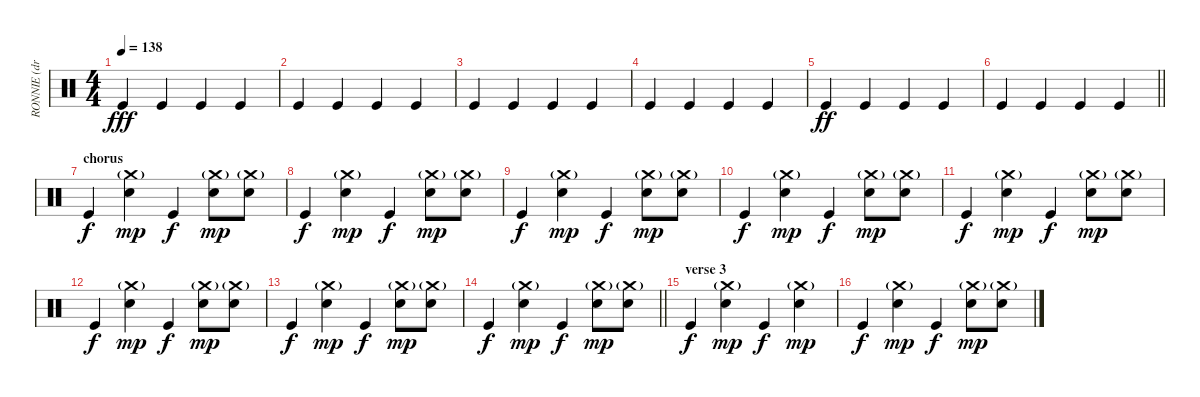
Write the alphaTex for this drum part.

\track ("RONNIE (drums)" "RONNIE (dr") {instrument percussion}
\staff {score}
\articulation defaults
\ts (4 4)
\tempo 138
\clef neutral
\ks c "Kick (hit)".4{dy fff} "Kick (hit)".4 "Kick (hit)".4 "Kick (hit)".4
|
"Kick (hit)".4 "Kick (hit)".4 "Kick (hit)".4 "Kick (hit)".4 |
"Kick (hit)".4 "Kick (hit)".4 "Kick (hit)".4 "Kick (hit)".4 |
"Kick (hit)".4 "Kick (hit)".4 "Kick (hit)".4 "Kick (hit)".4 |
"Kick (hit)".4{dy ff} "Kick (hit)".4 "Kick (hit)".4 "Kick (hit)".4 |
\barLineRight lightlight "Kick (hit)".4 "Kick (hit)".4 "Kick (hit)".4 "Kick (hit)".4
|
\section ("" "chorus")
"Kick (hit)".4{dy f} ("Electric Snare (hit)" "Crash medium (hit)"{g}).4{dy mp} "Kick (hit)".4{dy f} ("Electric Snare (hit)" "Crash medium (hit)"{g}).8{dy mp} ("Electric Snare (hit)" "Crash medium (hit)"{g}).8 |
"Kick (hit)".4{dy f} ("Electric Snare (hit)" "Crash medium (hit)"{g}).4{dy mp} "Kick (hit)".4{dy f} ("Electric Snare (hit)" "Crash medium (hit)"{g}).8{dy mp} ("Electric Snare (hit)" "Crash medium (hit)"{g}).8 |
"Kick (hit)".4{dy f} ("Electric Snare (hit)" "Crash medium (hit)"{g}).4{dy mp} "Kick (hit)".4{dy f} ("Electric Snare (hit)" "Crash medium (hit)"{g}).8{dy mp} ("Electric Snare (hit)" "Crash medium (hit)"{g}).8 |
"Kick (hit)".4{dy f} ("Electric Snare (hit)" "Crash medium (hit)"{g}).4{dy mp} "Kick (hit)".4{dy f} ("Electric Snare (hit)" "Crash medium (hit)"{g}).8{dy mp} ("Electric Snare (hit)" "Crash medium (hit)"{g}).8 |
"Kick (hit)".4{dy f} ("Electric Snare (hit)" "Crash medium (hit)"{g}).4{dy mp} "Kick (hit)".4{dy f} ("Electric Snare (hit)" "Crash medium (hit)"{g}).8{dy mp} ("Electric Snare (hit)" "Crash medium (hit)"{g}).8 |
"Kick (hit)".4{dy f} ("Electric Snare (hit)" "Crash medium (hit)"{g}).4{dy mp} "Kick (hit)".4{dy f} ("Electric Snare (hit)" "Crash medium (hit)"{g}).8{dy mp} ("Electric Snare (hit)" "Crash medium (hit)"{g}).8 |
"Kick (hit)".4{dy f} ("Electric Snare (hit)" "Crash medium (hit)"{g}).4{dy mp} "Kick (hit)".4{dy f} ("Electric Snare (hit)" "Crash medium (hit)"{g}).8{dy mp} ("Electric Snare (hit)" "Crash medium (hit)"{g}).8 |
\barLineRight lightlight "Kick (hit)".4{dy f}
("Electric Snare (hit)" "Crash medium (hit)"{g}).4{dy mp} "Kick (hit)".4{dy f} ("Electric Snare (hit)" "Crash medium (hit)"{g}).8{dy mp} ("Electric Snare (hit)" "Crash medium (hit)"{g}).8 |
\section ("" "verse 3")
"Kick (hit)".4{dy f} ("Electric Snare (hit)" "Crash medium (hit)"{g}).4{dy mp} "Kick (hit)".4{dy f} ("Electric Snare (hit)" "Crash medium (hit)"{g}).4{dy mp} |
"Kick (hit)".4{dy f} ("Electric Snare (hit)" "Crash medium (hit)"{g}).4{dy mp} "Kick (hit)".4{dy f} ("Electric Snare (hit)" "Crash medium (hit)"{g}).8{dy mp} ("Electric Snare (hit)" "Crash medium (hit)"{g}).8
